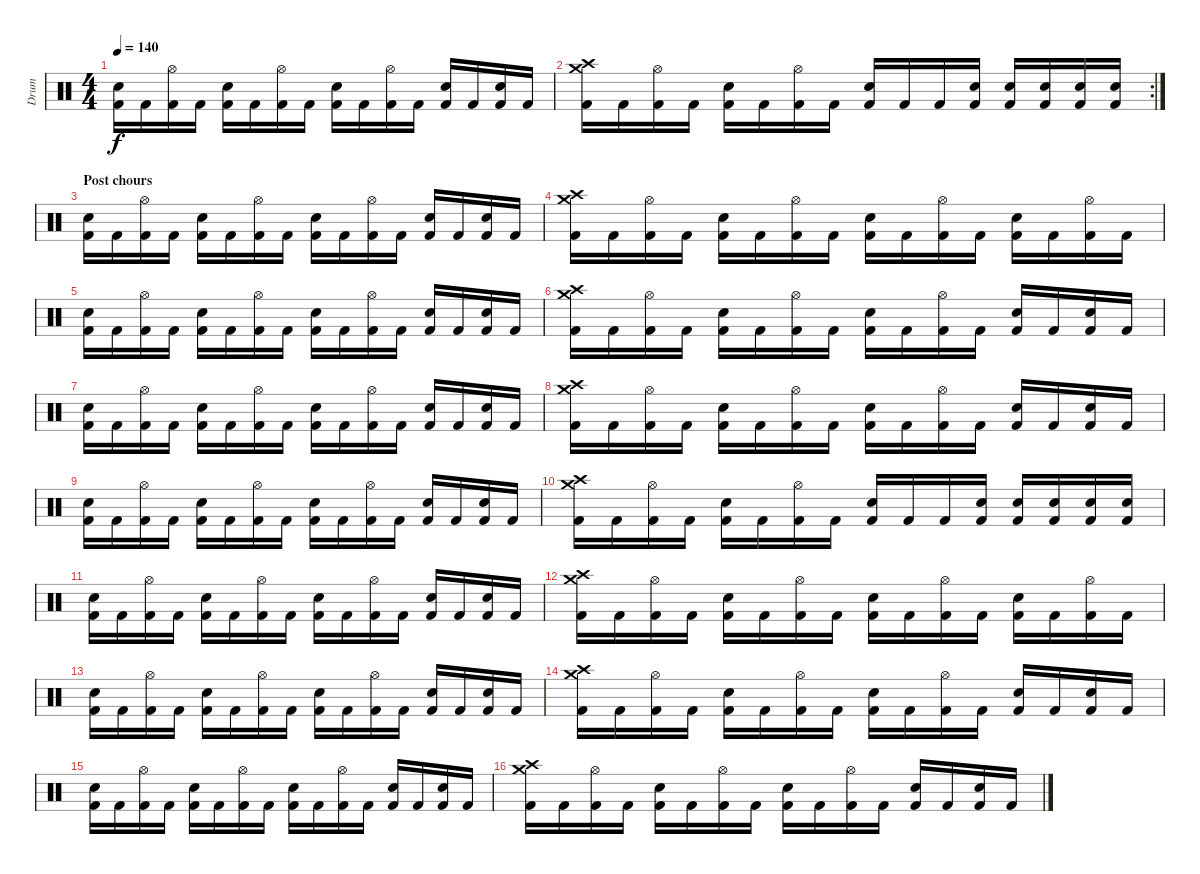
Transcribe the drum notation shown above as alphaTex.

\track ("Drum" "Drum") {instrument percussion}
\staff {score}
\articulation defaults
\ts (4 4)
\tempo 140
\clef neutral
\ks c
("Electric Snare (hit)" "Kick (hit) 2").16{dy f} "Kick (hit) 2".16 ("Hi-Hat (open)" "Kick (hit) 2").16 "Kick (hit) 2".16 ("Electric Snare (hit)" "Kick (hit) 2").16 "Kick (hit) 2".16 ("Hi-Hat (open)" "Kick (hit) 2").16 "Kick (hit) 2".16 ("Electric Snare (hit)" "Kick (hit) 2").16 "Kick (hit) 2".16 ("Hi-Hat (open)" "Kick (hit) 2").16 "Kick (hit) 2".16 ("Electric Snare (hit)" "Kick (hit) 2").16 "Kick (hit) 2".16 ("Electric Snare (hit)" "Kick (hit) 2").16 "Kick (hit) 2".16 |
\rc 2
("Crash medium (hit)" "Crash high (hit)" "Kick (hit) 2").16 "Kick (hit) 2".16 ("Hi-Hat (open)" "Kick (hit) 2").16 "Kick (hit) 2".16 ("Electric Snare (hit)" "Kick (hit) 2").16 "Kick (hit) 2".16 ("Hi-Hat (open)" "Kick (hit) 2").16 "Kick (hit) 2".16 ("Electric Snare (hit)" "Kick (hit) 2").16 "Kick (hit) 2".16 "Kick (hit) 2".16 ("Electric Snare (hit)" "Kick (hit) 2").16 ("Electric Snare (hit)" "Kick (hit) 2").16 ("Electric Snare (hit)" "Kick (hit) 2").16 ("Electric Snare (hit)" "Kick (hit) 2").16 ("Electric Snare (hit)" "Kick (hit) 2").16 |
\section ("" "Post chours")
("Electric Snare (hit)" "Kick (hit) 2").16 "Kick (hit) 2".16 ("Hi-Hat (open)" "Kick (hit) 2").16 "Kick (hit) 2".16 ("Electric Snare (hit)" "Kick (hit) 2").16 "Kick (hit) 2".16 ("Hi-Hat (open)" "Kick (hit) 2").16 "Kick (hit) 2".16 ("Electric Snare (hit)" "Kick (hit) 2").16 "Kick (hit) 2".16 ("Hi-Hat (open)" "Kick (hit) 2").16 "Kick (hit) 2".16 ("Electric Snare (hit)" "Kick (hit) 2").16 "Kick (hit) 2".16 ("Electric Snare (hit)" "Kick (hit) 2").16 "Kick (hit) 2".16 |
("Crash medium (hit)" "Crash high (hit)" "Kick (hit) 2").16 "Kick (hit) 2".16 ("Hi-Hat (open)" "Kick (hit) 2").16 "Kick (hit) 2".16 ("Electric Snare (hit)" "Kick (hit) 2").16 "Kick (hit) 2".16 ("Hi-Hat (open)" "Kick (hit) 2").16 "Kick (hit) 2".16 ("Electric Snare (hit)" "Kick (hit) 2").16 "Kick (hit) 2".16 ("Hi-Hat (open)" "Kick (hit) 2").16 "Kick (hit) 2".16 ("Electric Snare (hit)" "Kick (hit) 2").16 "Kick (hit) 2".16 ("Hi-Hat (open)" "Kick (hit) 2").16 "Kick (hit) 2".16 |
("Electric Snare (hit)" "Kick (hit) 2").16 "Kick (hit) 2".16 ("Hi-Hat (open)" "Kick (hit) 2").16 "Kick (hit) 2".16 ("Electric Snare (hit)" "Kick (hit) 2").16 "Kick (hit) 2".16 ("Hi-Hat (open)" "Kick (hit) 2").16 "Kick (hit) 2".16 ("Electric Snare (hit)" "Kick (hit) 2").16 "Kick (hit) 2".16 ("Hi-Hat (open)" "Kick (hit) 2").16 "Kick (hit) 2".16 ("Electric Snare (hit)" "Kick (hit) 2").16 "Kick (hit) 2".16 ("Electric Snare (hit)" "Kick (hit) 2").16 "Kick (hit) 2".16 |
("Crash medium (hit)" "Crash high (hit)" "Kick (hit) 2").16 "Kick (hit) 2".16 ("Hi-Hat (open)" "Kick (hit) 2").16 "Kick (hit) 2".16 ("Electric Snare (hit)" "Kick (hit) 2").16 "Kick (hit) 2".16 ("Hi-Hat (open)" "Kick (hit) 2").16 "Kick (hit) 2".16 ("Electric Snare (hit)" "Kick (hit) 2").16 "Kick (hit) 2".16 ("Hi-Hat (open)" "Kick (hit) 2").16 "Kick (hit) 2".16 ("Electric Snare (hit)" "Kick (hit) 2").16 "Kick (hit) 2".16 ("Electric Snare (hit)" "Kick (hit) 2").16 "Kick (hit) 2".16 |
("Electric Snare (hit)" "Kick (hit) 2").16 "Kick (hit) 2".16 ("Hi-Hat (open)" "Kick (hit) 2").16 "Kick (hit) 2".16 ("Electric Snare (hit)" "Kick (hit) 2").16 "Kick (hit) 2".16 ("Hi-Hat (open)" "Kick (hit) 2").16 "Kick (hit) 2".16 ("Electric Snare (hit)" "Kick (hit) 2").16 "Kick (hit) 2".16 ("Hi-Hat (open)" "Kick (hit) 2").16 "Kick (hit) 2".16 ("Electric Snare (hit)" "Kick (hit) 2").16 "Kick (hit) 2".16 ("Electric Snare (hit)" "Kick (hit) 2").16 "Kick (hit) 2".16 |
("Crash medium (hit)" "Crash high (hit)" "Kick (hit) 2").16 "Kick (hit) 2".16 ("Hi-Hat (open)" "Kick (hit) 2").16 "Kick (hit) 2".16 ("Electric Snare (hit)" "Kick (hit) 2").16 "Kick (hit) 2".16 ("Hi-Hat (open)" "Kick (hit) 2").16 "Kick (hit) 2".16 ("Electric Snare (hit)" "Kick (hit) 2").16 "Kick (hit) 2".16 ("Hi-Hat (open)" "Kick (hit) 2").16 "Kick (hit) 2".16 ("Electric Snare (hit)" "Kick (hit) 2").16 "Kick (hit) 2".16 ("Electric Snare (hit)" "Kick (hit) 2").16 "Kick (hit) 2".16 |
("Electric Snare (hit)" "Kick (hit) 2").16 "Kick (hit) 2".16 ("Hi-Hat (open)" "Kick (hit) 2").16 "Kick (hit) 2".16 ("Electric Snare (hit)" "Kick (hit) 2").16 "Kick (hit) 2".16 ("Hi-Hat (open)" "Kick (hit) 2").16 "Kick (hit) 2".16 ("Electric Snare (hit)" "Kick (hit) 2").16 "Kick (hit) 2".16 ("Hi-Hat (open)" "Kick (hit) 2").16 "Kick (hit) 2".16 ("Electric Snare (hit)" "Kick (hit) 2").16 "Kick (hit) 2".16 ("Electric Snare (hit)" "Kick (hit) 2").16 "Kick (hit) 2".16 |
("Crash medium (hit)" "Crash high (hit)" "Kick (hit) 2").16 "Kick (hit) 2".16 ("Hi-Hat (open)" "Kick (hit) 2").16 "Kick (hit) 2".16 ("Electric Snare (hit)" "Kick (hit) 2").16 "Kick (hit) 2".16 ("Hi-Hat (open)" "Kick (hit) 2").16 "Kick (hit) 2".16 ("Electric Snare (hit)" "Kick (hit) 2").16 "Kick (hit) 2".16 "Kick (hit) 2".16 ("Electric Snare (hit)" "Kick (hit) 2").16 ("Electric Snare (hit)" "Kick (hit) 2").16 ("Electric Snare (hit)" "Kick (hit) 2").16 ("Electric Snare (hit)" "Kick (hit) 2").16 ("Electric Snare (hit)" "Kick (hit) 2").16 |
("Electric Snare (hit)" "Kick (hit) 2").16 "Kick (hit) 2".16 ("Hi-Hat (open)" "Kick (hit) 2").16 "Kick (hit) 2".16 ("Electric Snare (hit)" "Kick (hit) 2").16 "Kick (hit) 2".16 ("Hi-Hat (open)" "Kick (hit) 2").16 "Kick (hit) 2".16 ("Electric Snare (hit)" "Kick (hit) 2").16 "Kick (hit) 2".16 ("Hi-Hat (open)" "Kick (hit) 2").16 "Kick (hit) 2".16 ("Electric Snare (hit)" "Kick (hit) 2").16 "Kick (hit) 2".16 ("Electric Snare (hit)" "Kick (hit) 2").16 "Kick (hit) 2".16 |
("Crash medium (hit)" "Crash high (hit)" "Kick (hit) 2").16 "Kick (hit) 2".16 ("Hi-Hat (open)" "Kick (hit) 2").16 "Kick (hit) 2".16 ("Electric Snare (hit)" "Kick (hit) 2").16 "Kick (hit) 2".16 ("Hi-Hat (open)" "Kick (hit) 2").16 "Kick (hit) 2".16 ("Electric Snare (hit)" "Kick (hit) 2").16 "Kick (hit) 2".16 ("Hi-Hat (open)" "Kick (hit) 2").16 "Kick (hit) 2".16 ("Electric Snare (hit)" "Kick (hit) 2").16 "Kick (hit) 2".16 ("Hi-Hat (open)" "Kick (hit) 2").16 "Kick (hit) 2".16 |
("Electric Snare (hit)" "Kick (hit) 2").16 "Kick (hit) 2".16 ("Hi-Hat (open)" "Kick (hit) 2").16 "Kick (hit) 2".16 ("Electric Snare (hit)" "Kick (hit) 2").16 "Kick (hit) 2".16 ("Hi-Hat (open)" "Kick (hit) 2").16 "Kick (hit) 2".16 ("Electric Snare (hit)" "Kick (hit) 2").16 "Kick (hit) 2".16 ("Hi-Hat (open)" "Kick (hit) 2").16 "Kick (hit) 2".16 ("Electric Snare (hit)" "Kick (hit) 2").16 "Kick (hit) 2".16 ("Electric Snare (hit)" "Kick (hit) 2").16 "Kick (hit) 2".16 |
("Crash medium (hit)" "Crash high (hit)" "Kick (hit) 2").16 "Kick (hit) 2".16 ("Hi-Hat (open)" "Kick (hit) 2").16 "Kick (hit) 2".16 ("Electric Snare (hit)" "Kick (hit) 2").16 "Kick (hit) 2".16 ("Hi-Hat (open)" "Kick (hit) 2").16 "Kick (hit) 2".16 ("Electric Snare (hit)" "Kick (hit) 2").16 "Kick (hit) 2".16 ("Hi-Hat (open)" "Kick (hit) 2").16 "Kick (hit) 2".16 ("Electric Snare (hit)" "Kick (hit) 2").16 "Kick (hit) 2".16 ("Electric Snare (hit)" "Kick (hit) 2").16 "Kick (hit) 2".16 |
("Electric Snare (hit)" "Kick (hit) 2").16 "Kick (hit) 2".16 ("Hi-Hat (open)" "Kick (hit) 2").16 "Kick (hit) 2".16 ("Electric Snare (hit)" "Kick (hit) 2").16 "Kick (hit) 2".16 ("Hi-Hat (open)" "Kick (hit) 2").16 "Kick (hit) 2".16 ("Electric Snare (hit)" "Kick (hit) 2").16 "Kick (hit) 2".16 ("Hi-Hat (open)" "Kick (hit) 2").16 "Kick (hit) 2".16 ("Electric Snare (hit)" "Kick (hit) 2").16 "Kick (hit) 2".16 ("Electric Snare (hit)" "Kick (hit) 2").16 "Kick (hit) 2".16 |
("Crash medium (hit)" "Crash high (hit)" "Kick (hit) 2").16 "Kick (hit) 2".16 ("Hi-Hat (open)" "Kick (hit) 2").16 "Kick (hit) 2".16 ("Electric Snare (hit)" "Kick (hit) 2").16 "Kick (hit) 2".16 ("Hi-Hat (open)" "Kick (hit) 2").16 "Kick (hit) 2".16 ("Electric Snare (hit)" "Kick (hit) 2").16 "Kick (hit) 2".16 ("Hi-Hat (open)" "Kick (hit) 2").16 "Kick (hit) 2".16 ("Electric Snare (hit)" "Kick (hit) 2").16 "Kick (hit) 2".16 ("Electric Snare (hit)" "Kick (hit) 2").16 "Kick (hit) 2".16
